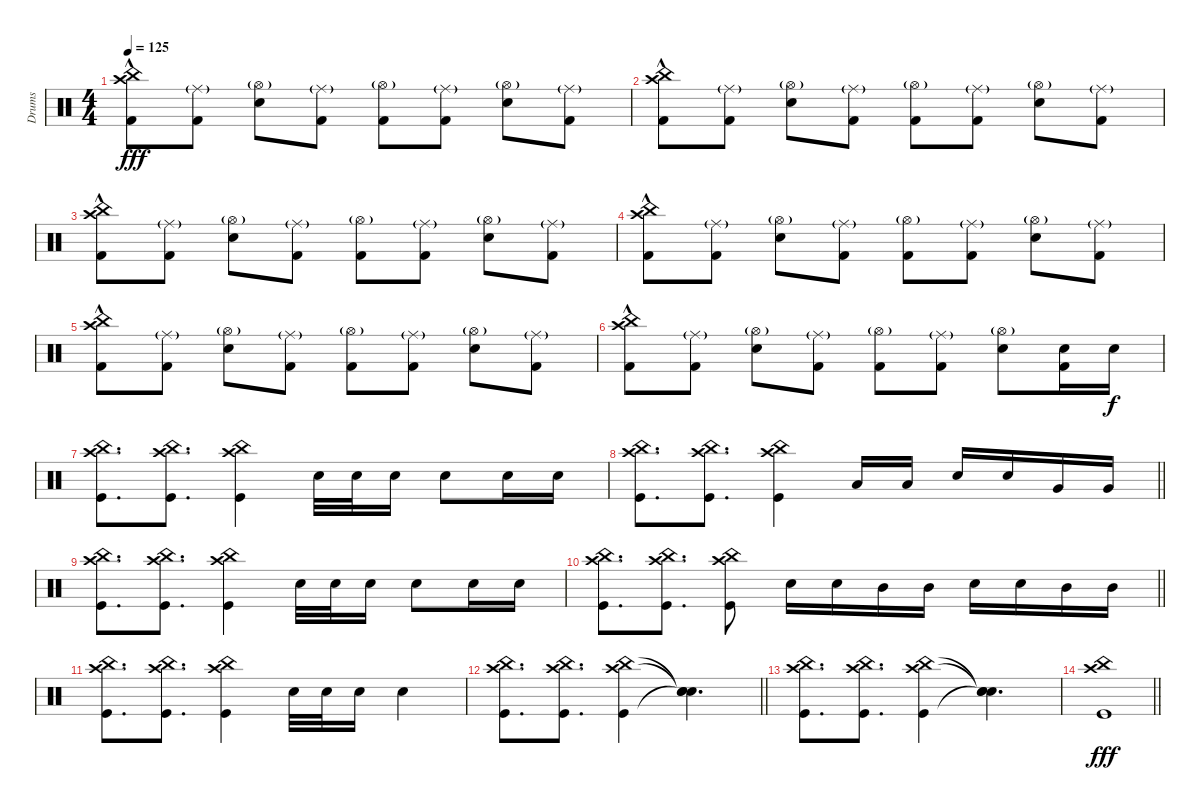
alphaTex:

\track ("Drums" "Drums") {instrument percussion}
\staff
\articulation defaults
\ts (4 4)
\tempo 125
\clef neutral
\ks c
("Crash high (hit)" "Kick (hit) 2"{hac} "China (hit)"{hac}).8{dy fff} ("Kick (hit) 2" "Ride (middle)"{g}).8 ("Snare (hit) 2" "Hi-Hat (open)"{g}).8 ("Kick (hit) 2" "Ride (middle)"{g}).8 ("Kick (hit) 2" "Hi-Hat (open)"{g}).8 ("Kick (hit) 2" "Ride (middle)"{g}).8 ("Snare (hit) 2" "Hi-Hat (open)"{g}).8 ("Kick (hit) 2" "Ride (middle)"{g}).8 |
("Crash high (hit)" "Kick (hit) 2"{hac} "China (hit)"{hac}).8 ("Kick (hit) 2" "Ride (middle)"{g}).8 ("Snare (hit) 2" "Hi-Hat (open)"{g}).8 ("Kick (hit) 2" "Ride (middle)"{g}).8 ("Kick (hit) 2" "Hi-Hat (open)"{g}).8 ("Kick (hit) 2" "Ride (middle)"{g}).8 ("Snare (hit) 2" "Hi-Hat (open)"{g}).8 ("Kick (hit) 2" "Ride (middle)"{g}).8 |
("Crash high (hit)" "Kick (hit) 2"{hac} "China (hit)"{hac}).8 ("Kick (hit) 2" "Ride (middle)"{g}).8 ("Snare (hit) 2" "Hi-Hat (open)"{g}).8 ("Kick (hit) 2" "Ride (middle)"{g}).8 ("Kick (hit) 2" "Hi-Hat (open)"{g}).8 ("Kick (hit) 2" "Ride (middle)"{g}).8 ("Snare (hit) 2" "Hi-Hat (open)"{g}).8 ("Kick (hit) 2" "Ride (middle)"{g}).8 |
("Crash high (hit)" "Kick (hit) 2"{hac} "China (hit)"{hac}).8 ("Kick (hit) 2" "Ride (middle)"{g}).8 ("Snare (hit) 2" "Hi-Hat (open)"{g}).8 ("Kick (hit) 2" "Ride (middle)"{g}).8 ("Kick (hit) 2" "Hi-Hat (open)"{g}).8 ("Kick (hit) 2" "Ride (middle)"{g}).8 ("Snare (hit) 2" "Hi-Hat (open)"{g}).8 ("Kick (hit) 2" "Ride (middle)"{g}).8 |
("Crash high (hit)" "Kick (hit) 2"{hac} "China (hit)"{hac}).8 ("Kick (hit) 2" "Ride (middle)"{g}).8 ("Snare (hit) 2" "Hi-Hat (open)"{g}).8 ("Kick (hit) 2" "Ride (middle)"{g}).8 ("Kick (hit) 2" "Hi-Hat (open)"{g}).8 ("Kick (hit) 2" "Ride (middle)"{g}).8 ("Snare (hit) 2" "Hi-Hat (open)"{g}).8 ("Kick (hit) 2" "Ride (middle)"{g}).8 |
("Crash high (hit)" "Kick (hit) 2"{hac} "China (hit)"{hac}).8 ("Kick (hit) 2" "Ride (middle)"{g}).8 ("Snare (hit) 2" "Hi-Hat (open)"{g}).8 ("Kick (hit) 2" "Ride (middle)"{g}).8 ("Kick (hit) 2" "Hi-Hat (open)"{g}).8 ("Kick (hit) 2" "Ride (middle)"{g}).8 ("Snare (hit) 2" "Hi-Hat (open)"{g}).8 ("Snare (hit) 2" "Kick (hit) 2").16 "Snare (hit) 2".16{dy f} |
("Crash high (hit)" "Kick (hit)" "China (hit)").8{d} ("Crash high (hit)" "Kick (hit)" "China (hit)").8{d} ("Crash high (hit)" "Kick (hit)" "China (hit)").4 "Snare (hit) 2".32 "Snare (hit) 2".32 "Snare (hit) 2".16 "Snare (hit) 2".8 "Snare (hit) 2".16 "Snare (hit) 2".16 |
\barLineRight lightlight
("Crash high (hit)" "Kick (hit)" "China (hit)").8{d} ("Crash high (hit)" "Kick (hit)" "China (hit)").8{d} ("Crash high (hit)" "Kick (hit)" "China (hit)").4 "Low Tom (hit)".16 "Low Tom (hit)".16 "Snare (hit) 2".16 "Snare (hit) 2".16 "Very Low Tom (hit)".16 "Very Low Tom (hit)".16 |
("Crash high (hit)" "Kick (hit)" "China (hit)").8{d} ("Crash high (hit)" "Kick (hit)" "China (hit)").8{d} ("Crash high (hit)" "Kick (hit)" "China (hit)").4 "Snare (hit) 2".32 "Snare (hit) 2".32 "Snare (hit) 2".16 "Snare (hit) 2".8 "Snare (hit) 2".16 "Snare (hit) 2".16 |
\barLineRight lightlight
("Crash high (hit)" "Kick (hit)" "China (hit)").8{d} ("Crash high (hit)" "Kick (hit)" "China (hit)").8{d} ("Crash high (hit)" "Kick (hit)" "China (hit)").8 "Snare (hit) 2".16 "Snare (hit) 2".16 "Mid Tom (hit)".16 "Mid Tom (hit)".16 "Snare (hit) 2".16 "Snare (hit) 2".16 "Mid Tom (hit)".16 "Mid Tom (hit)".16 |
("Crash high (hit)" "Kick (hit)" "China (hit)").8{d} ("Crash high (hit)" "Kick (hit)" "China (hit)").8{d} ("Crash high (hit)" "Kick (hit)" "China (hit)").4 "Snare (hit) 2".32 "Snare (hit) 2".32 "Snare (hit) 2".16 "Snare (hit) 2".4 |
\barLineRight lightlight
("Crash high (hit)" "Kick (hit)" "China (hit)").8{d} ("Crash high (hit)" "Kick (hit)" "China (hit)").8{d} ("Crash high (hit)" "Kick (hit)" "China (hit)").4 ("Snare (hit) 2"{t} "Snare (hit)"{t} "Snare (hit)"{t}).4{d} |
("Crash high (hit)" "Kick (hit)" "China (hit)").8{d} ("Crash high (hit)" "Kick (hit)" "China (hit)").8{d} ("Crash high (hit)" "Kick (hit)" "China (hit)").4 ("Snare (hit) 2"{t} "Snare (hit)"{t} "Snare (hit)"{t}).4{d} |
\barLineRight lightlight
("Crash high (hit)" "Kick (hit)" "China (hit)").1{dy fff}
